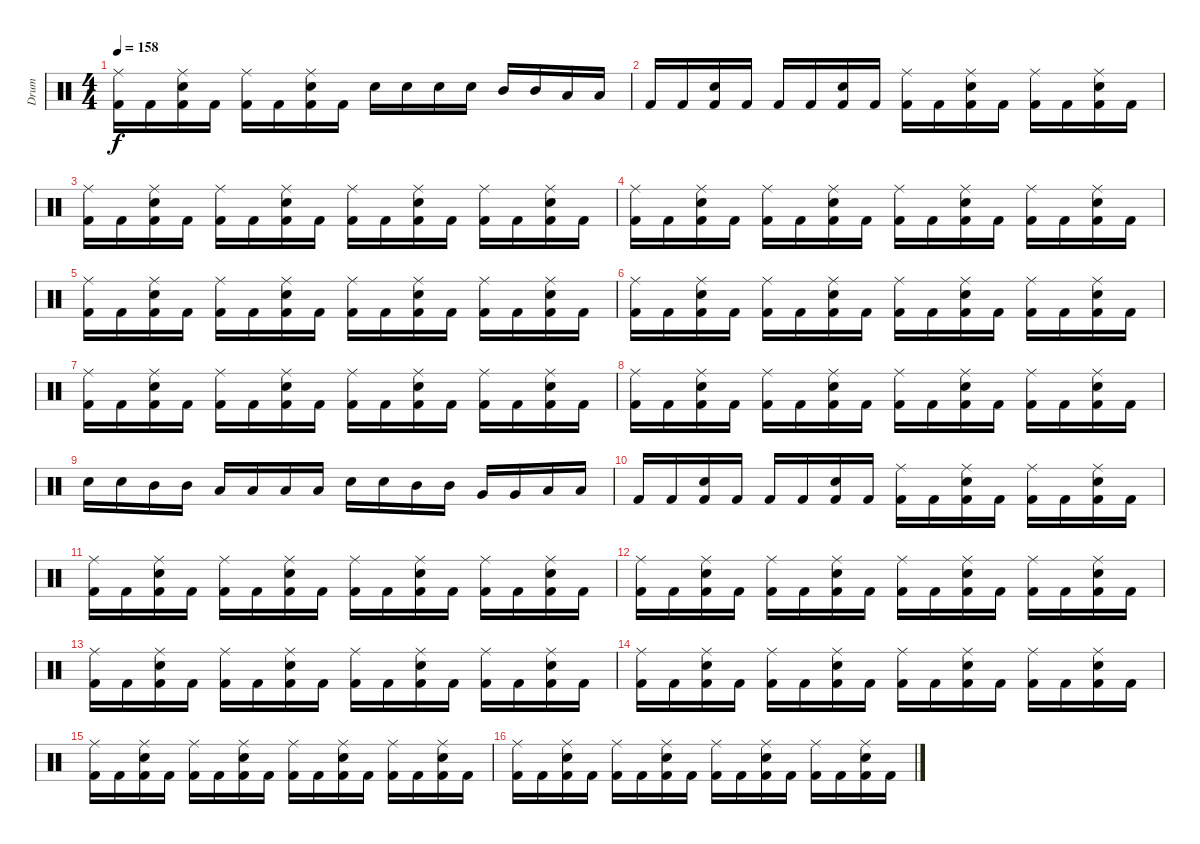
\track ("Drum" "Drum") {instrument percussion}
\staff {score}
\articulation defaults
\ts (4 4)
\tempo 158
\clef neutral
\ks c
("Kick (hit) 2" "Ride (middle)").16{dy f} "Kick (hit) 2".16 ("Electric Snare (hit)" "Kick (hit) 2" "Ride (middle)").16 "Kick (hit) 2".16 ("Kick (hit) 2" "Ride (middle)").16 "Kick (hit) 2".16 ("Electric Snare (hit)" "Kick (hit) 2" "Ride (middle)").16 "Kick (hit) 2".16 "Electric Snare (hit)".16 "Electric Snare (hit)".16 "Electric Snare (hit)".16 "Electric Snare (hit)".16 "Mid Tom (hit)".16 "Mid Tom (hit)".16 "Low Tom (hit)".16 "Low Tom (hit)".16 |
"Kick (hit) 2".16 "Kick (hit) 2".16 ("Electric Snare (hit)" "Kick (hit) 2").16 "Kick (hit) 2".16 "Kick (hit) 2".16 "Kick (hit) 2".16 ("Electric Snare (hit)" "Kick (hit) 2").16 "Kick (hit) 2".16 ("Kick (hit) 2" "Ride (middle)").16 "Kick (hit) 2".16 ("Electric Snare (hit)" "Kick (hit) 2" "Ride (middle)").16 "Kick (hit) 2".16 ("Kick (hit) 2" "Ride (middle)").16 "Kick (hit) 2".16 ("Electric Snare (hit)" "Kick (hit) 2" "Ride (middle)").16 "Kick (hit) 2".16 |
("Kick (hit) 2" "Ride (middle)").16 "Kick (hit) 2".16 ("Electric Snare (hit)" "Kick (hit) 2" "Ride (middle)").16 "Kick (hit) 2".16 ("Kick (hit) 2" "Ride (middle)").16 "Kick (hit) 2".16 ("Electric Snare (hit)" "Kick (hit) 2" "Ride (middle)").16 "Kick (hit) 2".16 ("Kick (hit) 2" "Ride (middle)").16 "Kick (hit) 2".16 ("Electric Snare (hit)" "Kick (hit) 2" "Ride (middle)").16 "Kick (hit) 2".16 ("Kick (hit) 2" "Ride (middle)").16 "Kick (hit) 2".16 ("Electric Snare (hit)" "Kick (hit) 2" "Ride (middle)").16 "Kick (hit) 2".16 |
("Kick (hit) 2" "Ride (middle)").16 "Kick (hit) 2".16 ("Electric Snare (hit)" "Kick (hit) 2" "Ride (middle)").16 "Kick (hit) 2".16 ("Kick (hit) 2" "Ride (middle)").16 "Kick (hit) 2".16 ("Electric Snare (hit)" "Kick (hit) 2" "Ride (middle)").16 "Kick (hit) 2".16 ("Kick (hit) 2" "Ride (middle)").16 "Kick (hit) 2".16 ("Electric Snare (hit)" "Kick (hit) 2" "Ride (middle)").16 "Kick (hit) 2".16 ("Kick (hit) 2" "Ride (middle)").16 "Kick (hit) 2".16 ("Electric Snare (hit)" "Kick (hit) 2" "Ride (middle)").16 "Kick (hit) 2".16 |
("Kick (hit) 2" "Ride (middle)").16 "Kick (hit) 2".16 ("Electric Snare (hit)" "Kick (hit) 2" "Ride (middle)").16 "Kick (hit) 2".16 ("Kick (hit) 2" "Ride (middle)").16 "Kick (hit) 2".16 ("Electric Snare (hit)" "Kick (hit) 2" "Ride (middle)").16 "Kick (hit) 2".16 ("Kick (hit) 2" "Ride (middle)").16 "Kick (hit) 2".16 ("Electric Snare (hit)" "Kick (hit) 2" "Ride (middle)").16 "Kick (hit) 2".16 ("Kick (hit) 2" "Ride (middle)").16 "Kick (hit) 2".16 ("Electric Snare (hit)" "Kick (hit) 2" "Ride (middle)").16 "Kick (hit) 2".16 |
("Kick (hit) 2" "Ride (middle)").16 "Kick (hit) 2".16 ("Electric Snare (hit)" "Kick (hit) 2" "Ride (middle)").16 "Kick (hit) 2".16 ("Kick (hit) 2" "Ride (middle)").16 "Kick (hit) 2".16 ("Electric Snare (hit)" "Kick (hit) 2" "Ride (middle)").16 "Kick (hit) 2".16 ("Kick (hit) 2" "Ride (middle)").16 "Kick (hit) 2".16 ("Electric Snare (hit)" "Kick (hit) 2" "Ride (middle)").16 "Kick (hit) 2".16 ("Kick (hit) 2" "Ride (middle)").16 "Kick (hit) 2".16 ("Electric Snare (hit)" "Kick (hit) 2" "Ride (middle)").16 "Kick (hit) 2".16 |
("Kick (hit) 2" "Ride (middle)").16 "Kick (hit) 2".16 ("Electric Snare (hit)" "Kick (hit) 2" "Ride (middle)").16 "Kick (hit) 2".16 ("Kick (hit) 2" "Ride (middle)").16 "Kick (hit) 2".16 ("Electric Snare (hit)" "Kick (hit) 2" "Ride (middle)").16 "Kick (hit) 2".16 ("Kick (hit) 2" "Ride (middle)").16 "Kick (hit) 2".16 ("Electric Snare (hit)" "Kick (hit) 2" "Ride (middle)").16 "Kick (hit) 2".16 ("Kick (hit) 2" "Ride (middle)").16 "Kick (hit) 2".16 ("Electric Snare (hit)" "Kick (hit) 2" "Ride (middle)").16 "Kick (hit) 2".16 |
("Kick (hit) 2" "Ride (middle)").16 "Kick (hit) 2".16 ("Electric Snare (hit)" "Kick (hit) 2" "Ride (middle)").16 "Kick (hit) 2".16 ("Kick (hit) 2" "Ride (middle)").16 "Kick (hit) 2".16 ("Electric Snare (hit)" "Kick (hit) 2" "Ride (middle)").16 "Kick (hit) 2".16 ("Kick (hit) 2" "Ride (middle)").16 "Kick (hit) 2".16 ("Electric Snare (hit)" "Kick (hit) 2" "Ride (middle)").16 "Kick (hit) 2".16 ("Kick (hit) 2" "Ride (middle)").16 "Kick (hit) 2".16 ("Electric Snare (hit)" "Kick (hit) 2" "Ride (middle)").16 "Kick (hit) 2".16 |
"Electric Snare (hit)".16 "Electric Snare (hit)".16 "Mid Tom (hit)".16 "Mid Tom (hit)".16 "Low Tom (hit)".16 "Low Tom (hit)".16 "Low Floor Tom (hit)".16 "Low Floor Tom (hit)".16 "Electric Snare (hit)".16 "Electric Snare (hit)".16 "Mid Tom (hit)".16 "Mid Tom (hit)".16 "Very Low Tom (hit)".16 "Very Low Tom (hit)".16 "Low Floor Tom (hit)".16 "Low Floor Tom (hit)".16 |
"Kick (hit) 2".16 "Kick (hit) 2".16 ("Electric Snare (hit)" "Kick (hit) 2").16 "Kick (hit) 2".16 "Kick (hit) 2".16 "Kick (hit) 2".16 ("Electric Snare (hit)" "Kick (hit) 2").16 "Kick (hit) 2".16 ("Kick (hit) 2" "Ride (middle)").16 "Kick (hit) 2".16 ("Electric Snare (hit)" "Kick (hit) 2" "Ride (middle)").16 "Kick (hit) 2".16 ("Kick (hit) 2" "Ride (middle)").16 "Kick (hit) 2".16 ("Electric Snare (hit)" "Kick (hit) 2" "Ride (middle)").16 "Kick (hit) 2".16 |
("Kick (hit) 2" "Ride (middle)").16 "Kick (hit) 2".16 ("Electric Snare (hit)" "Kick (hit) 2" "Ride (middle)").16 "Kick (hit) 2".16 ("Kick (hit) 2" "Ride (middle)").16 "Kick (hit) 2".16 ("Electric Snare (hit)" "Kick (hit) 2" "Ride (middle)").16 "Kick (hit) 2".16 ("Kick (hit) 2" "Ride (middle)").16 "Kick (hit) 2".16 ("Electric Snare (hit)" "Kick (hit) 2" "Ride (middle)").16 "Kick (hit) 2".16 ("Kick (hit) 2" "Ride (middle)").16 "Kick (hit) 2".16 ("Electric Snare (hit)" "Kick (hit) 2" "Ride (middle)").16 "Kick (hit) 2".16 |
("Kick (hit) 2" "Ride (middle)").16 "Kick (hit) 2".16 ("Electric Snare (hit)" "Kick (hit) 2" "Ride (middle)").16 "Kick (hit) 2".16 ("Kick (hit) 2" "Ride (middle)").16 "Kick (hit) 2".16 ("Electric Snare (hit)" "Kick (hit) 2" "Ride (middle)").16 "Kick (hit) 2".16 ("Kick (hit) 2" "Ride (middle)").16 "Kick (hit) 2".16 ("Electric Snare (hit)" "Kick (hit) 2" "Ride (middle)").16 "Kick (hit) 2".16 ("Kick (hit) 2" "Ride (middle)").16 "Kick (hit) 2".16 ("Electric Snare (hit)" "Kick (hit) 2" "Ride (middle)").16 "Kick (hit) 2".16 |
("Kick (hit) 2" "Ride (middle)").16 "Kick (hit) 2".16 ("Electric Snare (hit)" "Kick (hit) 2" "Ride (middle)").16 "Kick (hit) 2".16 ("Kick (hit) 2" "Ride (middle)").16 "Kick (hit) 2".16 ("Electric Snare (hit)" "Kick (hit) 2" "Ride (middle)").16 "Kick (hit) 2".16 ("Kick (hit) 2" "Ride (middle)").16 "Kick (hit) 2".16 ("Electric Snare (hit)" "Kick (hit) 2" "Ride (middle)").16 "Kick (hit) 2".16 ("Kick (hit) 2" "Ride (middle)").16 "Kick (hit) 2".16 ("Electric Snare (hit)" "Kick (hit) 2" "Ride (middle)").16 "Kick (hit) 2".16 |
("Kick (hit) 2" "Ride (middle)").16 "Kick (hit) 2".16 ("Electric Snare (hit)" "Kick (hit) 2" "Ride (middle)").16 "Kick (hit) 2".16 ("Kick (hit) 2" "Ride (middle)").16 "Kick (hit) 2".16 ("Electric Snare (hit)" "Kick (hit) 2" "Ride (middle)").16 "Kick (hit) 2".16 ("Kick (hit) 2" "Ride (middle)").16 "Kick (hit) 2".16 ("Electric Snare (hit)" "Kick (hit) 2" "Ride (middle)").16 "Kick (hit) 2".16 ("Kick (hit) 2" "Ride (middle)").16 "Kick (hit) 2".16 ("Electric Snare (hit)" "Kick (hit) 2" "Ride (middle)").16 "Kick (hit) 2".16 |
("Kick (hit) 2" "Ride (middle)").16 "Kick (hit) 2".16 ("Electric Snare (hit)" "Kick (hit) 2" "Ride (middle)").16 "Kick (hit) 2".16 ("Kick (hit) 2" "Ride (middle)").16 "Kick (hit) 2".16 ("Electric Snare (hit)" "Kick (hit) 2" "Ride (middle)").16 "Kick (hit) 2".16 ("Kick (hit) 2" "Ride (middle)").16 "Kick (hit) 2".16 ("Electric Snare (hit)" "Kick (hit) 2" "Ride (middle)").16 "Kick (hit) 2".16 ("Kick (hit) 2" "Ride (middle)").16 "Kick (hit) 2".16 ("Electric Snare (hit)" "Kick (hit) 2" "Ride (middle)").16 "Kick (hit) 2".16 |
("Kick (hit) 2" "Ride (middle)").16 "Kick (hit) 2".16 ("Electric Snare (hit)" "Kick (hit) 2" "Ride (middle)").16 "Kick (hit) 2".16 ("Kick (hit) 2" "Ride (middle)").16 "Kick (hit) 2".16 ("Electric Snare (hit)" "Kick (hit) 2" "Ride (middle)").16 "Kick (hit) 2".16 ("Kick (hit) 2" "Ride (middle)").16 "Kick (hit) 2".16 ("Electric Snare (hit)" "Kick (hit) 2" "Ride (middle)").16 "Kick (hit) 2".16 ("Kick (hit) 2" "Ride (middle)").16 "Kick (hit) 2".16 ("Electric Snare (hit)" "Kick (hit) 2" "Ride (middle)").16 "Kick (hit) 2".16
